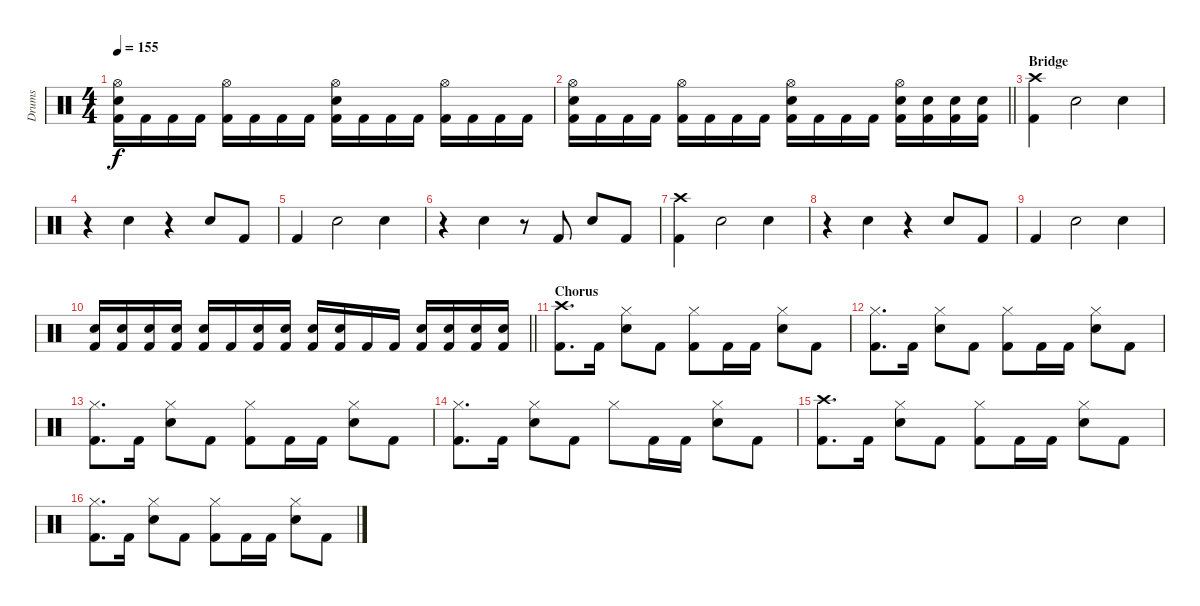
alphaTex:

\track ("Drums" "Drums") {instrument percussion}
\staff {score}
\articulation defaults
\ts (4 4)
\tempo 155
\clef neutral
\ks c
("Hi-Hat (open)" "Snare (hit) 2" "Kick (hit) 2").16{dy f} "Kick (hit) 2".16 "Kick (hit) 2".16 "Kick (hit) 2".16 ("Hi-Hat (open)" "Kick (hit) 2").16 "Kick (hit) 2".16 "Kick (hit) 2".16 "Kick (hit) 2".16 ("Hi-Hat (open)" "Snare (hit) 2" "Kick (hit) 2").16 "Kick (hit) 2".16 "Kick (hit) 2".16 "Kick (hit) 2".16 ("Hi-Hat (open)" "Kick (hit) 2").16 "Kick (hit) 2".16 "Kick (hit) 2".16 "Kick (hit) 2".16 |
\barLineRight lightlight
("Hi-Hat (open)" "Snare (hit) 2" "Kick (hit) 2").16 "Kick (hit) 2".16 "Kick (hit) 2".16 "Kick (hit) 2".16 ("Hi-Hat (open)" "Kick (hit) 2").16 "Kick (hit) 2".16 "Kick (hit) 2".16 "Kick (hit) 2".16 ("Hi-Hat (open)" "Snare (hit) 2" "Kick (hit) 2").16 "Kick (hit) 2".16 "Kick (hit) 2".16 "Kick (hit) 2".16 ("Hi-Hat (open)" "Snare (hit) 2" "Kick (hit) 2").16 ("Snare (hit) 2" "Kick (hit) 2").16 ("Snare (hit) 2" "Kick (hit) 2").16 ("Snare (hit) 2" "Kick (hit) 2").16 |
\section ("" "Bridge")
("Crash high (hit)" "Kick (hit) 2").4 "Snare (hit) 2".2 "Snare (hit) 2".4 |
r.4 "Snare (hit) 2".4 r.4 "Snare (hit) 2".8 "Kick (hit) 2".8 |
"Kick (hit) 2".4 "Snare (hit) 2".2 "Snare (hit) 2".4 |
r.4 "Snare (hit) 2".4 r.8 "Kick (hit) 2".8 "Snare (hit) 2".8 "Kick (hit) 2".8 |
("Crash high (hit)" "Kick (hit) 2").4 "Snare (hit) 2".2 "Snare (hit) 2".4 |
r.4 "Snare (hit) 2".4 r.4 "Snare (hit) 2".8 "Kick (hit) 2".8 |
"Kick (hit) 2".4 "Snare (hit) 2".2 "Snare (hit) 2".4 |
\barLineRight lightlight
("Snare (hit) 2" "Kick (hit) 2").16 ("Snare (hit) 2" "Kick (hit) 2").16 ("Snare (hit) 2" "Kick (hit) 2").16 ("Snare (hit) 2" "Kick (hit) 2").16 ("Snare (hit) 2" "Kick (hit) 2").16 "Kick (hit) 2".16 ("Snare (hit) 2" "Kick (hit) 2").16 ("Snare (hit) 2" "Kick (hit) 2").16 ("Snare (hit) 2" "Kick (hit) 2").16 ("Snare (hit) 2" "Kick (hit) 2").16 "Kick (hit) 2".16 "Kick (hit) 2".16 ("Snare (hit) 2" "Kick (hit) 2").16 ("Snare (hit) 2" "Kick (hit) 2").16 ("Snare (hit) 2" "Kick (hit) 2").16 ("Snare (hit) 2" "Kick (hit) 2").16 |
\section ("" "Chorus")
("Crash high (hit)" "Kick (hit) 2").8{d} "Kick (hit) 2".16 ("Hi-Hat (closed)" "Snare (hit) 2").8 "Kick (hit) 2".8 ("Hi-Hat (closed)" "Kick (hit) 2").8 "Kick (hit) 2".16 "Kick (hit) 2".16 ("Hi-Hat (closed)" "Snare (hit) 2").8 "Kick (hit) 2".8 |
("Hi-Hat (closed)" "Kick (hit) 2").8{d} "Kick (hit) 2".16 ("Hi-Hat (closed)" "Snare (hit) 2").8 "Kick (hit) 2".8 ("Hi-Hat (closed)" "Kick (hit) 2").8 "Kick (hit) 2".16 "Kick (hit) 2".16 ("Hi-Hat (closed)" "Snare (hit) 2").8 "Kick (hit) 2".8 |
("Hi-Hat (closed)" "Kick (hit) 2").8{d} "Kick (hit) 2".16 ("Hi-Hat (closed)" "Snare (hit) 2").8 "Kick (hit) 2".8 ("Hi-Hat (closed)" "Kick (hit) 2").8 "Kick (hit) 2".16 "Kick (hit) 2".16 ("Hi-Hat (closed)" "Snare (hit) 2").8 "Kick (hit) 2".8 |
("Hi-Hat (closed)" "Kick (hit) 2").8{d} "Kick (hit) 2".16 ("Hi-Hat (closed)" "Snare (hit) 2").8 "Kick (hit) 2".8 "Hi-Hat (closed)".8 "Kick (hit) 2".16 "Kick (hit) 2".16 ("Hi-Hat (closed)" "Snare (hit) 2").8 "Kick (hit) 2".8 |
("Crash high (hit)" "Kick (hit) 2").8{d} "Kick (hit) 2".16 ("Hi-Hat (closed)" "Snare (hit) 2").8 "Kick (hit) 2".8 ("Hi-Hat (closed)" "Kick (hit) 2").8 "Kick (hit) 2".16 "Kick (hit) 2".16 ("Hi-Hat (closed)" "Snare (hit) 2").8 "Kick (hit) 2".8 |
("Hi-Hat (closed)" "Kick (hit) 2").8{d} "Kick (hit) 2".16 ("Hi-Hat (closed)" "Snare (hit) 2").8 "Kick (hit) 2".8 ("Hi-Hat (closed)" "Kick (hit) 2").8 "Kick (hit) 2".16 "Kick (hit) 2".16 ("Hi-Hat (closed)" "Snare (hit) 2").8 "Kick (hit) 2".8
